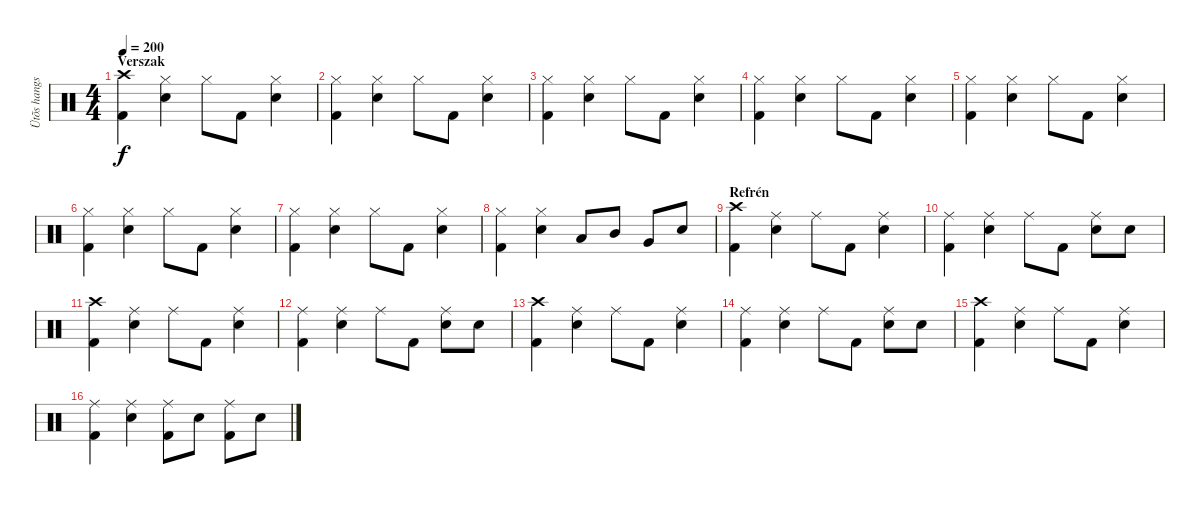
\track ("Ütõs hangszer" "Ütõs hangs") {instrument percussion}
\staff {score}
\articulation defaults
\ts (4 4)
\section ("" "Verszak")
\tempo 200
\clef neutral
\ks c
("Crash high (hit)" "Kick (hit) 2").4{dy f} ("Hi-Hat (closed)" "Snare (hit) 2").4 "Hi-Hat (closed)".8 "Kick (hit) 2".8 ("Hi-Hat (closed)" "Snare (hit) 2").4 |
("Hi-Hat (closed)" "Kick (hit) 2").4 ("Hi-Hat (closed)" "Snare (hit) 2").4 "Hi-Hat (closed)".8 "Kick (hit) 2".8 ("Hi-Hat (closed)" "Snare (hit) 2").4 |
("Hi-Hat (closed)" "Kick (hit) 2").4 ("Hi-Hat (closed)" "Snare (hit) 2").4 "Hi-Hat (closed)".8 "Kick (hit) 2".8 ("Hi-Hat (closed)" "Snare (hit) 2").4 |
("Hi-Hat (closed)" "Kick (hit) 2").4 ("Hi-Hat (closed)" "Snare (hit) 2").4 "Hi-Hat (closed)".8 "Kick (hit) 2".8 ("Hi-Hat (closed)" "Snare (hit) 2").4 |
("Hi-Hat (closed)" "Kick (hit) 2").4 ("Hi-Hat (closed)" "Snare (hit) 2").4 "Hi-Hat (closed)".8 "Kick (hit) 2".8 ("Hi-Hat (closed)" "Snare (hit) 2").4 |
("Hi-Hat (closed)" "Kick (hit) 2").4 ("Hi-Hat (closed)" "Snare (hit) 2").4 "Hi-Hat (closed)".8 "Kick (hit) 2".8 ("Hi-Hat (closed)" "Snare (hit) 2").4 |
("Hi-Hat (closed)" "Kick (hit) 2").4 ("Hi-Hat (closed)" "Snare (hit) 2").4 "Hi-Hat (closed)".8 "Kick (hit) 2".8 ("Hi-Hat (closed)" "Snare (hit) 2").4 |
("Hi-Hat (closed)" "Kick (hit) 2").4 ("Hi-Hat (closed)" "Snare (hit) 2").4 "Low Tom (hit)".8 "Mid Tom (hit)".8 "Very Low Tom (hit)".8 "Snare (hit) 2".8 |
\section ("" "Refrén")
("Crash high (hit)" "Kick (hit) 2").4 ("Ride (middle)" "Snare (hit) 2").4 "Ride (middle)".8 "Kick (hit) 2".8 ("Ride (middle)" "Snare (hit) 2").4 |
("Ride (middle)" "Kick (hit) 2").4 ("Ride (middle)" "Snare (hit) 2").4 "Ride (middle)".8 "Kick (hit) 2".8 ("Ride (middle)" "Snare (hit) 2").8 "Snare (hit) 2".8 |
("Crash high (hit)" "Kick (hit) 2").4 ("Ride (middle)" "Snare (hit) 2").4 "Ride (middle)".8 "Kick (hit) 2".8 ("Ride (middle)" "Snare (hit) 2").4 |
("Ride (middle)" "Kick (hit) 2").4 ("Ride (middle)" "Snare (hit) 2").4 "Ride (middle)".8 "Kick (hit) 2".8 ("Ride (middle)" "Snare (hit) 2").8 "Snare (hit) 2".8 |
("Crash high (hit)" "Kick (hit) 2").4 ("Ride (middle)" "Snare (hit) 2").4 "Ride (middle)".8 "Kick (hit) 2".8 ("Ride (middle)" "Snare (hit) 2").4 |
("Ride (middle)" "Kick (hit) 2").4 ("Ride (middle)" "Snare (hit) 2").4 "Ride (middle)".8 "Kick (hit) 2".8 ("Ride (middle)" "Snare (hit) 2").8 "Snare (hit) 2".8 |
("Crash high (hit)" "Kick (hit) 2").4 ("Ride (middle)" "Snare (hit) 2").4 "Ride (middle)".8 "Kick (hit) 2".8 ("Ride (middle)" "Snare (hit) 2").4 |
("Ride (middle)" "Kick (hit) 2").4 ("Ride (middle)" "Snare (hit) 2").4 ("Ride (middle)" "Kick (hit) 2").8 "Snare (hit) 2".8 ("Ride (middle)" "Kick (hit) 2").8 "Snare (hit) 2".8
